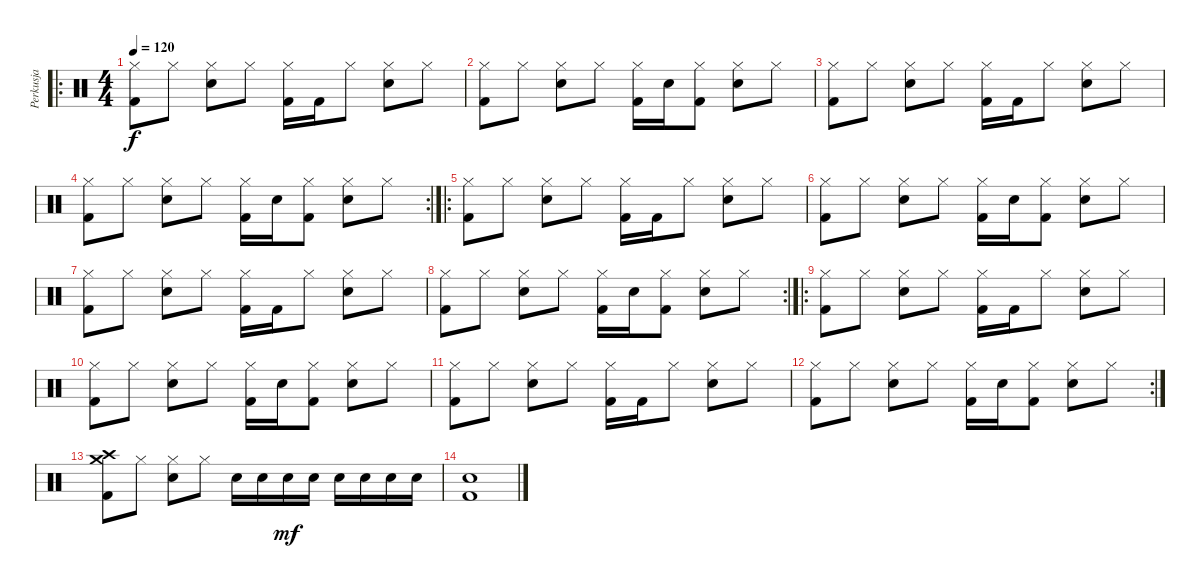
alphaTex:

\track ("Perkusja" "Perkusja") {instrument percussion}
\staff {score}
\articulation defaults
\ro
\ts (4 4)
\tempo 120
\clef neutral
\ks c
("Hi-Hat (closed)" "Kick (hit) 2").8{dy f} "Hi-Hat (closed)".8 ("Hi-Hat (closed)" "Snare (hit) 2").8 "Hi-Hat (closed)".8 ("Hi-Hat (closed)" "Kick (hit) 2").16 "Kick (hit) 2".16 "Hi-Hat (closed)".8 ("Hi-Hat (closed)" "Snare (hit) 2").8 "Hi-Hat (closed)".8 |
("Hi-Hat (closed)" "Kick (hit) 2").8 "Hi-Hat (closed)".8 ("Hi-Hat (closed)" "Snare (hit) 2").8 "Hi-Hat (closed)".8 ("Hi-Hat (closed)" "Kick (hit) 2").16 "Snare (hit) 2".16 ("Hi-Hat (closed)" "Kick (hit) 2").8 ("Hi-Hat (closed)" "Snare (hit) 2").8 "Hi-Hat (closed)".8 |
("Hi-Hat (closed)" "Kick (hit) 2").8 "Hi-Hat (closed)".8 ("Hi-Hat (closed)" "Snare (hit) 2").8 "Hi-Hat (closed)".8 ("Hi-Hat (closed)" "Kick (hit) 2").16 "Kick (hit) 2".16 "Hi-Hat (closed)".8 ("Hi-Hat (closed)" "Snare (hit) 2").8 "Hi-Hat (closed)".8 |
\rc 2
("Hi-Hat (closed)" "Kick (hit) 2").8 "Hi-Hat (closed)".8 ("Hi-Hat (closed)" "Snare (hit) 2").8 "Hi-Hat (closed)".8 ("Hi-Hat (closed)" "Kick (hit) 2").16 "Snare (hit) 2".16 ("Hi-Hat (closed)" "Kick (hit) 2").8 ("Hi-Hat (closed)" "Snare (hit) 2").8 "Hi-Hat (closed)".8 |
\ro
("Hi-Hat (closed)" "Kick (hit) 2").8 "Hi-Hat (closed)".8 ("Hi-Hat (closed)" "Snare (hit) 2").8 "Hi-Hat (closed)".8 ("Hi-Hat (closed)" "Kick (hit) 2").16 "Kick (hit) 2".16 "Hi-Hat (closed)".8 ("Hi-Hat (closed)" "Snare (hit) 2").8 "Hi-Hat (closed)".8 |
("Hi-Hat (closed)" "Kick (hit) 2").8 "Hi-Hat (closed)".8 ("Hi-Hat (closed)" "Snare (hit) 2").8 "Hi-Hat (closed)".8 ("Hi-Hat (closed)" "Kick (hit) 2").16 "Snare (hit) 2".16 ("Hi-Hat (closed)" "Kick (hit) 2").8 ("Hi-Hat (closed)" "Snare (hit) 2").8 "Hi-Hat (closed)".8 |
("Hi-Hat (closed)" "Kick (hit) 2").8 "Hi-Hat (closed)".8 ("Hi-Hat (closed)" "Snare (hit) 2").8 "Hi-Hat (closed)".8 ("Hi-Hat (closed)" "Kick (hit) 2").16 "Kick (hit) 2".16 "Hi-Hat (closed)".8 ("Hi-Hat (closed)" "Snare (hit) 2").8 "Hi-Hat (closed)".8 |
\rc 2
("Hi-Hat (closed)" "Kick (hit) 2").8 "Hi-Hat (closed)".8 ("Hi-Hat (closed)" "Snare (hit) 2").8 "Hi-Hat (closed)".8 ("Hi-Hat (closed)" "Kick (hit) 2").16 "Snare (hit) 2".16 ("Hi-Hat (closed)" "Kick (hit) 2").8 ("Hi-Hat (closed)" "Snare (hit) 2").8 "Hi-Hat (closed)".8 |
\ro
("Hi-Hat (closed)" "Kick (hit) 2").8 "Hi-Hat (closed)".8 ("Hi-Hat (closed)" "Snare (hit) 2").8 "Hi-Hat (closed)".8 ("Hi-Hat (closed)" "Kick (hit) 2").16 "Kick (hit) 2".16 "Hi-Hat (closed)".8 ("Hi-Hat (closed)" "Snare (hit) 2").8 "Hi-Hat (closed)".8 |
("Hi-Hat (closed)" "Kick (hit) 2").8 "Hi-Hat (closed)".8 ("Hi-Hat (closed)" "Snare (hit) 2").8 "Hi-Hat (closed)".8 ("Hi-Hat (closed)" "Kick (hit) 2").16 "Snare (hit) 2".16 ("Hi-Hat (closed)" "Kick (hit) 2").8 ("Hi-Hat (closed)" "Snare (hit) 2").8 "Hi-Hat (closed)".8 |
("Hi-Hat (closed)" "Kick (hit) 2").8 "Hi-Hat (closed)".8 ("Hi-Hat (closed)" "Snare (hit) 2").8 "Hi-Hat (closed)".8 ("Hi-Hat (closed)" "Kick (hit) 2").16 "Kick (hit) 2".16 "Hi-Hat (closed)".8 ("Hi-Hat (closed)" "Snare (hit) 2").8 "Hi-Hat (closed)".8 |
\rc 2
("Hi-Hat (closed)" "Kick (hit) 2").8 "Hi-Hat (closed)".8 ("Hi-Hat (closed)" "Snare (hit) 2").8 "Hi-Hat (closed)".8 ("Hi-Hat (closed)" "Kick (hit) 2").16 "Snare (hit) 2".16 ("Hi-Hat (closed)" "Kick (hit) 2").8 ("Hi-Hat (closed)" "Snare (hit) 2").8 "Hi-Hat (closed)".8 |
("Crash medium (hit)" "Crash high (hit)" "Kick (hit) 2").8 "Hi-Hat (closed)".8 ("Hi-Hat (closed)" "Snare (hit) 2").8 "Hi-Hat (closed)".8 "Snare (hit) 2".16 "Snare (hit) 2".16 "Snare (hit) 2".16{dy mf} "Snare (hit) 2".16 "Snare (hit) 2".16 "Snare (hit) 2".16 "Snare (hit) 2".16 "Snare (hit) 2".16 |
("Snare (hit) 2" "Kick (hit) 2").1
